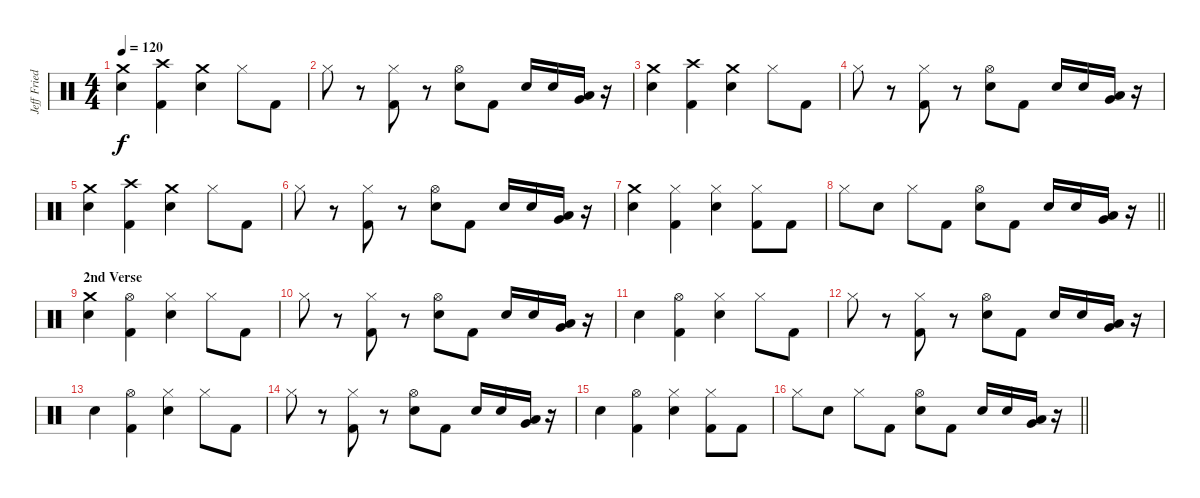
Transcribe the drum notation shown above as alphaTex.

\track ("Jeff Friedl" "Jeff Fried") {instrument percussion}
\staff {score}
\articulation defaults
\ts (4 4)
\tempo 120
\clef neutral
\ks c
("Crash medium (hit)" "Snare (hit) 2").4{dy f} ("Crash high (hit)" "Kick (hit) 2").4 ("Crash medium (hit)" "Snare (hit) 2").4 "Hi-Hat (closed)".8 "Kick (hit) 2".8 |
"Hi-Hat (closed)".8 r.8 ("Hi-Hat (closed)" "Kick (hit) 2").8 r.8 ("Hi-Hat (open)" "Snare (hit) 2").8 "Kick (hit) 2".8 "Snare (hit) 2".16 "Snare (hit) 2".16 ("Low Tom (hit)" "Very Low Tom (hit)").16 r.16 |
("Crash medium (hit)" "Snare (hit) 2").4 ("Crash high (hit)" "Kick (hit) 2").4 ("Crash medium (hit)" "Snare (hit) 2").4 "Hi-Hat (closed)".8 "Kick (hit) 2".8 |
"Hi-Hat (closed)".8 r.8 ("Hi-Hat (closed)" "Kick (hit) 2").8 r.8 ("Hi-Hat (open)" "Snare (hit) 2").8 "Kick (hit) 2".8 "Snare (hit) 2".16 "Snare (hit) 2".16 ("Low Tom (hit)" "Very Low Tom (hit)").16 r.16 |
("Crash medium (hit)" "Snare (hit) 2").4 ("Crash high (hit)" "Kick (hit) 2").4 ("Crash medium (hit)" "Snare (hit) 2").4 "Hi-Hat (closed)".8 "Kick (hit) 2".8 |
"Hi-Hat (closed)".8 r.8 ("Hi-Hat (closed)" "Kick (hit) 2").8 r.8 ("Hi-Hat (open)" "Snare (hit) 2").8 "Kick (hit) 2".8 "Snare (hit) 2".16 "Snare (hit) 2".16 ("Low Tom (hit)" "Very Low Tom (hit)").16 r.16 |
("Crash medium (hit)" "Snare (hit) 2").4 ("Hi-Hat (closed)" "Kick (hit) 2").4 ("Hi-Hat (closed)" "Snare (hit) 2").4 ("Hi-Hat (closed)" "Kick (hit) 2").8 "Kick (hit) 2".8 |
\barLineRight lightlight "Hi-Hat (closed)".8 "Snare (hit) 2".8 "Hi-Hat (closed)".8 "Kick (hit) 2".8
("Hi-Hat (open)" "Snare (hit) 2").8 "Kick (hit) 2".8 "Snare (hit) 2".16 "Snare (hit) 2".16 ("Low Tom (hit)" "Very Low Tom (hit)").16 r.16 |
\section ("" "2nd Verse")
("Crash medium (hit)" "Snare (hit) 2").4 ("Hi-Hat (open)" "Kick (hit) 2").4 ("Hi-Hat (closed)" "Snare (hit) 2").4 "Hi-Hat (closed)".8 "Kick (hit) 2".8 |
"Hi-Hat (closed)".8 r.8 ("Hi-Hat (closed)" "Kick (hit) 2").8 r.8 ("Hi-Hat (open)" "Snare (hit) 2").8 "Kick (hit) 2".8 "Snare (hit) 2".16 "Snare (hit) 2".16 ("Low Tom (hit)" "Very Low Tom (hit)").16 r.16 |
"Snare (hit) 2".4 ("Hi-Hat (open)" "Kick (hit) 2").4 ("Hi-Hat (closed)" "Snare (hit) 2").4 "Hi-Hat (closed)".8 "Kick (hit) 2".8 |
"Hi-Hat (closed)".8 r.8 ("Hi-Hat (closed)" "Kick (hit) 2").8 r.8 ("Hi-Hat (open)" "Snare (hit) 2").8 "Kick (hit) 2".8 "Snare (hit) 2".16 "Snare (hit) 2".16 ("Low Tom (hit)" "Very Low Tom (hit)").16 r.16 |
"Snare (hit) 2".4 ("Hi-Hat (open)" "Kick (hit) 2").4 ("Hi-Hat (closed)" "Snare (hit) 2").4 "Hi-Hat (closed)".8 "Kick (hit) 2".8 |
"Hi-Hat (closed)".8 r.8 ("Hi-Hat (closed)" "Kick (hit) 2").8 r.8 ("Hi-Hat (open)" "Snare (hit) 2").8 "Kick (hit) 2".8 "Snare (hit) 2".16 "Snare (hit) 2".16 ("Low Tom (hit)" "Very Low Tom (hit)").16 r.16 |
"Snare (hit) 2".4 ("Hi-Hat (open)" "Kick (hit) 2").4 ("Hi-Hat (closed)" "Snare (hit) 2").4 ("Hi-Hat (closed)" "Kick (hit) 2").8 "Kick (hit) 2".8 |
\barLineRight lightlight "Hi-Hat (closed)".8 "Snare (hit) 2".8 "Hi-Hat (closed)".8 "Kick (hit) 2".8
("Hi-Hat (open)" "Snare (hit) 2").8 "Kick (hit) 2".8 "Snare (hit) 2".16 "Snare (hit) 2".16 ("Low Tom (hit)" "Very Low Tom (hit)").16 r.16
